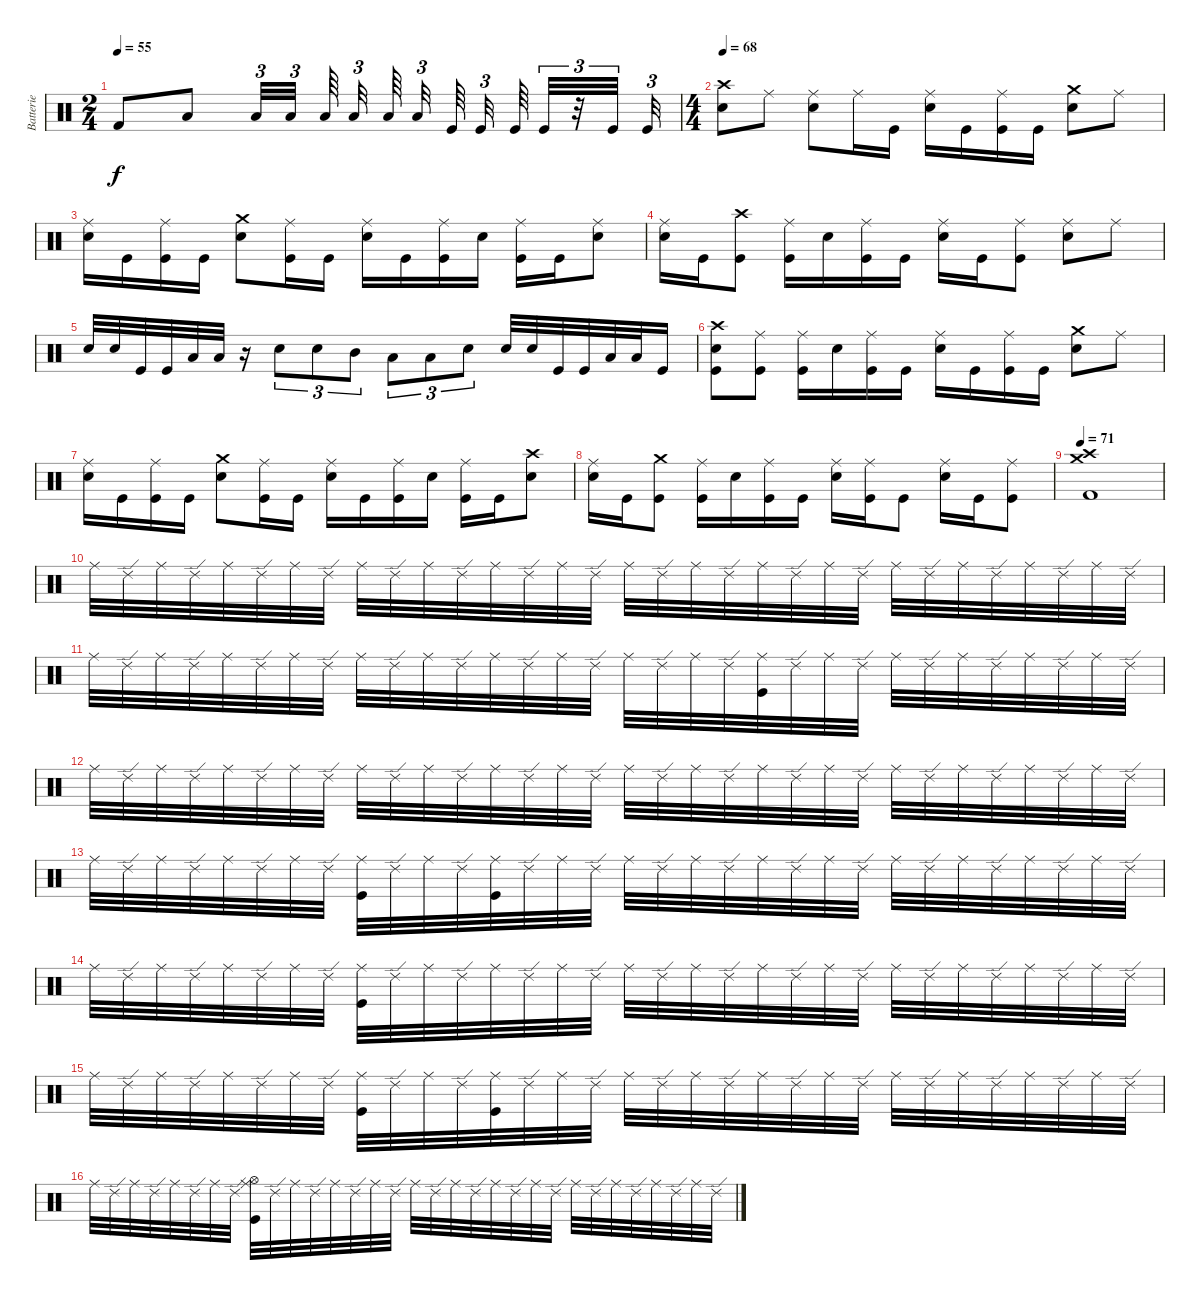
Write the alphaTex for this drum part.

\track ("Batterie" "Batterie") {instrument percussion}
\staff {score}
\articulation defaults
\ts (2 4)
\tempo 55
\clef neutral
\ks c "Kick (hit) 2".8{dy f volume 14} "Low Tom (hit)".8 "Low Floor Tom (hit)".32{tu (3 2)} "Low Floor Tom (hit)".32{tu (3 2)} "Low Floor Tom (hit)".64 "Low Floor Tom (hit)".32{tu (3 2)} "Low Floor Tom (hit)".64 "Low Floor Tom (hit)".32{tu (3 2)} "Kick (hit)".64 "Kick (hit)".32{tu (3 2)} "Kick (hit)".64 "Kick (hit)".32{tu (3 2)}
r.32{tu (3 2)} "Kick (hit)".32{tu (3 2)} "Kick (hit)".32{tu (3 2)} |
\ts (4 4)
\tempo 68
("Crash high (hit)" "Electric Snare (hit)").8{volume 14} "Ride (middle)".8 ("Ride (middle)" "Electric Snare (hit)").8 "Ride (middle)".16 "Kick (hit)".16 ("Ride (middle)" "Electric Snare (hit)").16 "Kick (hit)".16 ("Ride (middle)" "Kick (hit)").16 "Kick (hit)".16 ("Crash medium (hit)" "Electric Snare (hit)").8 "Ride (middle)".8 |
("Ride (middle)" "Electric Snare (hit)").16 "Kick (hit)".16 ("Ride (middle)" "Kick (hit)").16 "Kick (hit)".16 ("Crash medium (hit)" "Electric Snare (hit)").8 ("Ride (middle)" "Kick (hit)").16 "Kick (hit)".16 ("Ride (middle)" "Electric Snare (hit)").16 "Kick (hit)".16 ("Ride (middle)" "Kick (hit)").16 "Electric Snare (hit)".16 ("Ride (middle)" "Kick (hit)").16 "Kick (hit)".16 ("Ride (middle)" "Electric Snare (hit)").8 |
("Ride (middle)" "Electric Snare (hit)").16 "Kick (hit)".16 ("Crash high (hit)" "Kick (hit)").8 ("Ride (middle)" "Kick (hit)").16 "Electric Snare (hit)".16 ("Ride (middle)" "Kick (hit)").16 "Kick (hit)".16 ("Ride (middle)" "Electric Snare (hit)").16 "Kick (hit)".16 ("Ride (middle)" "Kick (hit)").8 ("Ride (middle)" "Electric Snare (hit)").8 "Ride (middle)".8 |
"Electric Snare (hit)".32 "Electric Snare (hit)".32 "Kick (hit)".32 "Kick (hit)".32 "Low Tom (hit)".32 "Low Tom (hit)".32 r.16 "Electric Snare (hit)".8{tu (3 2)} "Electric Snare (hit)".8{tu (3 2)} "Mid Tom (hit)".8{tu (3 2)} "Low Tom (hit)".8{tu (3 2)} "Low Tom (hit)".8{tu (3 2)} "Electric Snare (hit)".8{tu (3 2)} "Electric Snare (hit)".32 "Electric Snare (hit)".32 "Kick (hit)".32 "Kick (hit)".32 "Low Tom (hit)".32 "Low Tom (hit)".32 "Kick (hit)".16 |
("Crash high (hit)" "Electric Snare (hit)" "Kick (hit)").8 ("Ride (middle)" "Kick (hit)").8 ("Ride (middle)" "Kick (hit)").16 "Electric Snare (hit)".16 ("Ride (middle)" "Kick (hit)").16 "Kick (hit)".16 ("Ride (middle)" "Electric Snare (hit)").16 "Kick (hit)".16 ("Ride (middle)" "Kick (hit)").16 "Kick (hit)".16 ("Crash medium (hit)" "Electric Snare (hit)").8 "Ride (middle)".8 |
("Ride (middle)" "Electric Snare (hit)").16 "Kick (hit)".16 ("Ride (middle)" "Kick (hit)").16 "Kick (hit)".16 ("Crash medium (hit)" "Electric Snare (hit)").8 ("Ride (middle)" "Kick (hit)").16 "Kick (hit)".16 ("Ride (middle)" "Electric Snare (hit)").16 "Kick (hit)".16 ("Ride (middle)" "Kick (hit)").16 "Electric Snare (hit)".16 ("Ride (middle)" "Kick (hit)").16 "Kick (hit)".16 ("Crash high (hit)" "Electric Snare (hit)").8 |
("Ride (middle)" "Electric Snare (hit)").16 "Kick (hit)".16 ("Crash medium (hit)" "Kick (hit)").8 ("Ride (middle)" "Kick (hit)").16 "Electric Snare (hit)".16 ("Ride (middle)" "Kick (hit)").16 "Kick (hit)".16 ("Ride (middle)" "Electric Snare (hit)").16 ("Ride (middle)" "Kick (hit)").16 "Kick (hit)".8 ("Ride (middle)" "Electric Snare (hit)").16 "Kick (hit)".16 ("Ride (middle)" "Kick (hit)").8 |
\tempo 71
("Crash high (hit)" "Crash medium (hit)" "Kick (hit) 2").1 |
"Ride (middle)".32 "Ride (edge) 2".32 "Ride (middle)".32 "Ride (edge) 2".32 "Ride (middle)".32 "Ride (edge) 2".32 "Ride (middle)".32 "Ride (edge) 2".32 "Ride (middle)".32 "Ride (edge) 2".32 "Ride (middle)".32 "Ride (edge) 2".32 "Ride (middle)".32 "Ride (edge) 2".32 "Ride (middle)".32 "Ride (edge) 2".32 "Ride (middle)".32 "Ride (edge) 2".32 "Ride (middle)".32 "Ride (edge) 2".32 "Ride (middle)".32 "Ride (edge) 2".32 "Ride (middle)".32 "Ride (edge) 2".32 "Ride (middle)".32 "Ride (edge) 2".32 "Ride (middle)".32 "Ride (edge) 2".32 "Ride (middle)".32 "Ride (edge) 2".32 "Ride (middle)".32 "Ride (edge) 2".32 |
"Ride (middle)".32 "Ride (edge) 2".32 "Ride (middle)".32 "Ride (edge) 2".32 "Ride (middle)".32 "Ride (edge) 2".32 "Ride (middle)".32 "Ride (edge) 2".32 "Ride (middle)".32 "Ride (edge) 2".32 "Ride (middle)".32 "Ride (edge) 2".32 "Ride (middle)".32 "Ride (edge) 2".32 "Ride (middle)".32 "Ride (edge) 2".32 "Ride (middle)".32 "Ride (edge) 2".32 "Ride (middle)".32 "Ride (edge) 2".32 ("Ride (middle)" "Kick (hit)").32 "Ride (edge) 2".32 "Ride (middle)".32 "Ride (edge) 2".32 "Ride (middle)".32 "Ride (edge) 2".32 "Ride (middle)".32 "Ride (edge) 2".32 "Ride (middle)".32 "Ride (edge) 2".32 "Ride (middle)".32 "Ride (edge) 2".32 |
"Ride (middle)".32 "Ride (edge) 2".32 "Ride (middle)".32 "Ride (edge) 2".32 "Ride (middle)".32 "Ride (edge) 2".32 "Ride (middle)".32 "Ride (edge) 2".32 "Ride (middle)".32 "Ride (edge) 2".32 "Ride (middle)".32 "Ride (edge) 2".32 "Ride (middle)".32 "Ride (edge) 2".32 "Ride (middle)".32 "Ride (edge) 2".32 "Ride (middle)".32 "Ride (edge) 2".32 "Ride (middle)".32 "Ride (edge) 2".32 "Ride (middle)".32 "Ride (edge) 2".32 "Ride (middle)".32 "Ride (edge) 2".32 "Ride (middle)".32 "Ride (edge) 2".32 "Ride (middle)".32 "Ride (edge) 2".32 "Ride (middle)".32 "Ride (edge) 2".32 "Ride (middle)".32 "Ride (edge) 2".32 |
"Ride (middle)".32 "Ride (edge) 2".32 "Ride (middle)".32 "Ride (edge) 2".32 "Ride (middle)".32 "Ride (edge) 2".32 "Ride (middle)".32 "Ride (edge) 2".32 ("Ride (middle)" "Kick (hit)").32 "Ride (edge) 2".32 "Ride (middle)".32 "Ride (edge) 2".32 ("Ride (middle)" "Kick (hit)").32 "Ride (edge) 2".32 "Ride (middle)".32 "Ride (edge) 2".32 "Ride (middle)".32 "Ride (edge) 2".32 "Ride (middle)".32 "Ride (edge) 2".32 "Ride (middle)".32 "Ride (edge) 2".32 "Ride (middle)".32 "Ride (edge) 2".32 "Ride (middle)".32 "Ride (edge) 2".32 "Ride (middle)".32 "Ride (edge) 2".32 "Ride (middle)".32 "Ride (edge) 2".32 "Ride (middle)".32 "Ride (edge) 2".32 |
"Ride (middle)".32 "Ride (edge) 2".32 "Ride (middle)".32 "Ride (edge) 2".32 "Ride (middle)".32 "Ride (edge) 2".32 "Ride (middle)".32 "Ride (edge) 2".32 ("Ride (middle)" "Kick (hit)").32 "Ride (edge) 2".32 "Ride (middle)".32 "Ride (edge) 2".32 "Ride (middle)".32 "Ride (edge) 2".32 "Ride (middle)".32 "Ride (edge) 2".32 "Ride (middle)".32 "Ride (edge) 2".32 "Ride (middle)".32 "Ride (edge) 2".32 "Ride (middle)".32 "Ride (edge) 2".32 "Ride (middle)".32 "Ride (edge) 2".32 "Ride (middle)".32 "Ride (edge) 2".32 "Ride (middle)".32 "Ride (edge) 2".32 "Ride (middle)".32 "Ride (edge) 2".32 "Ride (middle)".32 "Ride (edge) 2".32 |
"Ride (middle)".32 "Ride (edge) 2".32 "Ride (middle)".32 "Ride (edge) 2".32 "Ride (middle)".32 "Ride (edge) 2".32 "Ride (middle)".32 "Ride (edge) 2".32 ("Ride (middle)" "Kick (hit)").32 "Ride (edge) 2".32 "Ride (middle)".32 "Ride (edge) 2".32 ("Ride (middle)" "Kick (hit)").32 "Ride (edge) 2".32 "Ride (middle)".32 "Ride (edge) 2".32 "Ride (middle)".32 "Ride (edge) 2".32 "Ride (middle)".32 "Ride (edge) 2".32 "Ride (middle)".32 "Ride (edge) 2".32 "Ride (middle)".32 "Ride (edge) 2".32 "Ride (middle)".32 "Ride (edge) 2".32 "Ride (middle)".32 "Ride (edge) 2".32 "Ride (middle)".32 "Ride (edge) 2".32 "Ride (middle)".32 "Ride (edge) 2".32 |
"Ride (middle)".32 "Ride (edge) 2".32 "Ride (middle)".32 "Ride (edge) 2".32 "Ride (middle)".32 "Ride (edge) 2".32 "Ride (middle)".32 "Ride (edge) 2".32 ("Ride (middle)" "Hi-Hat (open)" "Kick (hit)").32 "Ride (edge) 2".32 "Ride (middle)".32 "Ride (edge) 2".32 "Ride (middle)".32 "Ride (edge) 2".32 "Ride (middle)".32 "Ride (edge) 2".32 "Ride (middle)".32 "Ride (edge) 2".32 "Ride (middle)".32 "Ride (edge) 2".32 "Ride (middle)".32 "Ride (edge) 2".32 "Ride (middle)".32 "Ride (edge) 2".32 "Ride (middle)".32 "Ride (edge) 2".32 "Ride (middle)".32 "Ride (edge) 2".32 "Ride (middle)".32 "Ride (edge) 2".32 "Ride (middle)".32 "Ride (edge) 2".32
